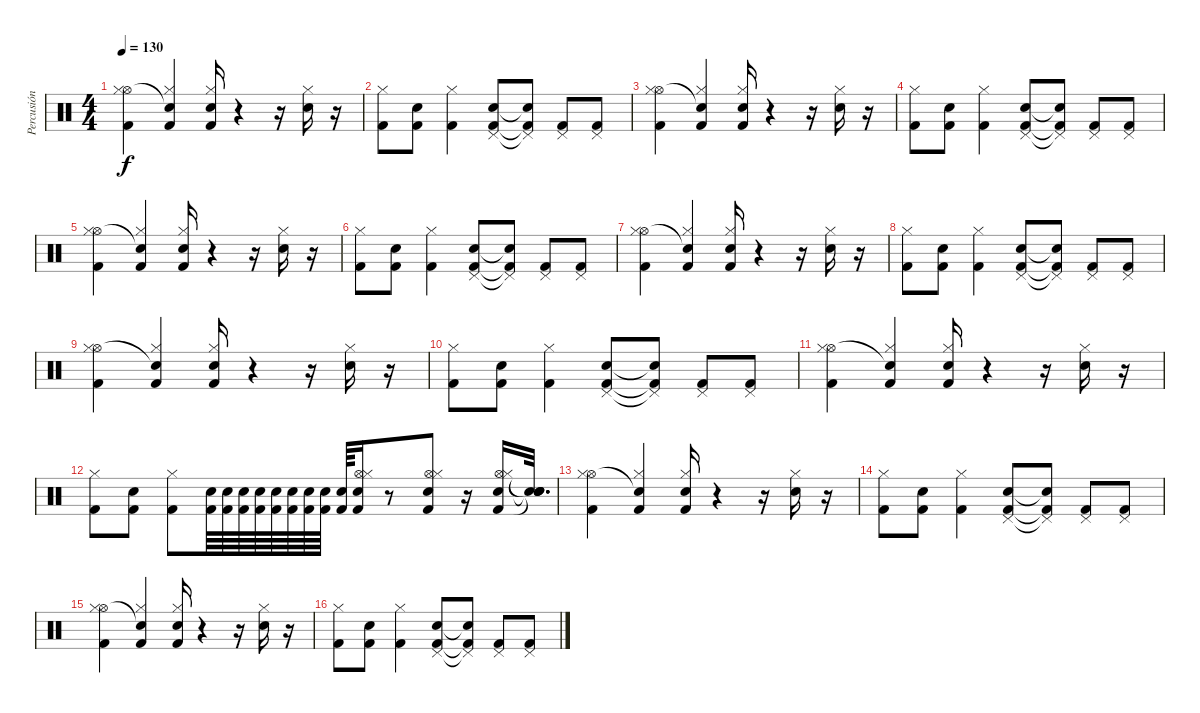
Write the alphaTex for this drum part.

\track ("Percusión" "Percusión") {instrument percussion}
\staff {score}
\articulation defaults
\ts (4 4)
\tempo 130
\clef neutral
\ks c
("Kick (hit) 2" "Hi-Hat (open)" "Hi-Hat (closed)").4{dy f} ("Kick (hit) 2" "Snare (hit)"{t} "Hi-Hat (closed)").4 ("Electric Snare (hit)" "Kick (hit) 2" "Hi-Hat (closed)").16 r.4 r.16 ("Electric Snare (hit)" "Hi-Hat (closed)").16 r.16 |
("Kick (hit) 2" "Hi-Hat (closed)").8 ("Kick (hit) 2" "Electric Snare (hit)").8 ("Kick (hit) 2" "Hi-Hat (closed)").4 ("Electric Snare (hit)" "Kick (hit) 2" "Pedal Hi-Hat (hit)").8 ("Snare (hit)"{t} "Kick (hit) 2"{t} "Pedal Hi-Hat (hit)"{t}).8 ("Kick (hit) 2" "Pedal Hi-Hat (hit)").8 ("Kick (hit) 2" "Pedal Hi-Hat (hit)").8 |
("Kick (hit) 2" "Hi-Hat (open)" "Hi-Hat (closed)").4 ("Kick (hit) 2" "Snare (hit)"{t} "Hi-Hat (closed)").4 ("Electric Snare (hit)" "Kick (hit) 2" "Hi-Hat (closed)").16 r.4 r.16 ("Electric Snare (hit)" "Hi-Hat (closed)").16 r.16 |
("Kick (hit) 2" "Hi-Hat (closed)").8 ("Kick (hit) 2" "Electric Snare (hit)").8 ("Kick (hit) 2" "Hi-Hat (closed)").4 ("Electric Snare (hit)" "Kick (hit) 2" "Pedal Hi-Hat (hit)").8 ("Snare (hit)"{t} "Kick (hit) 2"{t} "Pedal Hi-Hat (hit)"{t}).8 ("Kick (hit) 2" "Pedal Hi-Hat (hit)").8 ("Kick (hit) 2" "Pedal Hi-Hat (hit)").8 |
("Kick (hit) 2" "Hi-Hat (open)" "Hi-Hat (closed)").4 ("Kick (hit) 2" "Snare (hit)"{t} "Hi-Hat (closed)").4 ("Electric Snare (hit)" "Kick (hit) 2" "Hi-Hat (closed)").16 r.4 r.16 ("Electric Snare (hit)" "Hi-Hat (closed)").16 r.16 |
("Kick (hit) 2" "Hi-Hat (closed)").8 ("Kick (hit) 2" "Electric Snare (hit)").8 ("Kick (hit) 2" "Hi-Hat (closed)").4 ("Electric Snare (hit)" "Kick (hit) 2" "Pedal Hi-Hat (hit)").8 ("Snare (hit)"{t} "Kick (hit) 2"{t} "Pedal Hi-Hat (hit)"{t}).8 ("Kick (hit) 2" "Pedal Hi-Hat (hit)").8 ("Kick (hit) 2" "Pedal Hi-Hat (hit)").8 |
("Kick (hit) 2" "Hi-Hat (open)" "Hi-Hat (closed)").4 ("Kick (hit) 2" "Snare (hit)"{t} "Hi-Hat (closed)").4 ("Electric Snare (hit)" "Kick (hit) 2" "Hi-Hat (closed)").16 r.4 r.16 ("Electric Snare (hit)" "Hi-Hat (closed)").16 r.16 |
("Kick (hit) 2" "Hi-Hat (closed)").8 ("Kick (hit) 2" "Electric Snare (hit)").8 ("Kick (hit) 2" "Hi-Hat (closed)").4 ("Electric Snare (hit)" "Kick (hit) 2" "Pedal Hi-Hat (hit)").8 ("Snare (hit)"{t} "Kick (hit) 2"{t} "Pedal Hi-Hat (hit)"{t}).8 ("Kick (hit) 2" "Pedal Hi-Hat (hit)").8 ("Kick (hit) 2" "Pedal Hi-Hat (hit)").8 |
("Kick (hit) 2" "Hi-Hat (open)" "Hi-Hat (closed)").4 ("Kick (hit) 2" "Snare (hit)"{t} "Hi-Hat (closed)").4 ("Electric Snare (hit)" "Kick (hit) 2" "Hi-Hat (closed)").16 r.4 r.16 ("Electric Snare (hit)" "Hi-Hat (closed)").16 r.16 |
("Kick (hit) 2" "Hi-Hat (closed)").8 ("Kick (hit) 2" "Electric Snare (hit)").8 ("Kick (hit) 2" "Hi-Hat (closed)").4 ("Electric Snare (hit)" "Kick (hit) 2" "Pedal Hi-Hat (hit)").8 ("Snare (hit)"{t} "Kick (hit) 2"{t} "Pedal Hi-Hat (hit)"{t}).8 ("Kick (hit) 2" "Pedal Hi-Hat (hit)").8 ("Kick (hit) 2" "Pedal Hi-Hat (hit)").8 |
("Kick (hit) 2" "Hi-Hat (open)" "Hi-Hat (closed)").4 ("Kick (hit) 2" "Snare (hit)"{t} "Hi-Hat (closed)").4 ("Electric Snare (hit)" "Kick (hit) 2" "Hi-Hat (closed)").16 r.4 r.16 ("Electric Snare (hit)" "Hi-Hat (closed)").16 r.16 |
("Kick (hit) 2" "Hi-Hat (closed)").8 ("Kick (hit) 2" "Electric Snare (hit)").8 ("Kick (hit) 2" "Hi-Hat (closed)").8 ("Kick (hit) 2" "Electric Snare (hit)").64 ("Kick (hit) 2" "Electric Snare (hit)").64 ("Kick (hit) 2" "Electric Snare (hit)").64 ("Kick (hit) 2" "Electric Snare (hit)").64 ("Kick (hit) 2" "Electric Snare (hit)").64 ("Kick (hit) 2" "Electric Snare (hit)").64 ("Kick (hit) 2" "Electric Snare (hit)").64 ("Kick (hit) 2" "Electric Snare (hit)").64 ("Kick (hit) 2" "Electric Snare (hit)").64 ("Hi-Hat (open)" "Hi-Hat (closed)" "Kick (hit) 2" "Electric Snare (hit)").16 r.8 ("Hi-Hat (open)" "Hi-Hat (closed)" "Kick (hit) 2" "Electric Snare (hit)").8 r.16 ("Hi-Hat (open)" "Hi-Hat (closed)" "Kick (hit) 2" "Electric Snare (hit)").16 ("Snare (hit)"{t} "Snare (hit)"{t} "Snare (hit)"{t} "Snare (hit)"{t}).32{d} |
("Kick (hit) 2" "Hi-Hat (open)" "Hi-Hat (closed)").4 ("Kick (hit) 2" "Snare (hit)"{t} "Hi-Hat (closed)").4 ("Electric Snare (hit)" "Kick (hit) 2" "Hi-Hat (closed)").16 r.4 r.16 ("Electric Snare (hit)" "Hi-Hat (closed)").16 r.16 |
("Kick (hit) 2" "Hi-Hat (closed)").8 ("Kick (hit) 2" "Electric Snare (hit)").8 ("Kick (hit) 2" "Hi-Hat (closed)").4 ("Electric Snare (hit)" "Kick (hit) 2" "Pedal Hi-Hat (hit)").8 ("Snare (hit)"{t} "Kick (hit) 2"{t} "Pedal Hi-Hat (hit)"{t}).8 ("Kick (hit) 2" "Pedal Hi-Hat (hit)").8 ("Kick (hit) 2" "Pedal Hi-Hat (hit)").8 |
("Kick (hit) 2" "Hi-Hat (open)" "Hi-Hat (closed)").4 ("Kick (hit) 2" "Snare (hit)"{t} "Hi-Hat (closed)").4 ("Electric Snare (hit)" "Kick (hit) 2" "Hi-Hat (closed)").16 r.4 r.16 ("Electric Snare (hit)" "Hi-Hat (closed)").16 r.16 |
("Kick (hit) 2" "Hi-Hat (closed)").8 ("Kick (hit) 2" "Electric Snare (hit)").8 ("Kick (hit) 2" "Hi-Hat (closed)").4 ("Electric Snare (hit)" "Kick (hit) 2" "Pedal Hi-Hat (hit)").8 ("Snare (hit)"{t} "Kick (hit) 2"{t} "Pedal Hi-Hat (hit)"{t}).8 ("Kick (hit) 2" "Pedal Hi-Hat (hit)").8 ("Kick (hit) 2" "Pedal Hi-Hat (hit)").8
